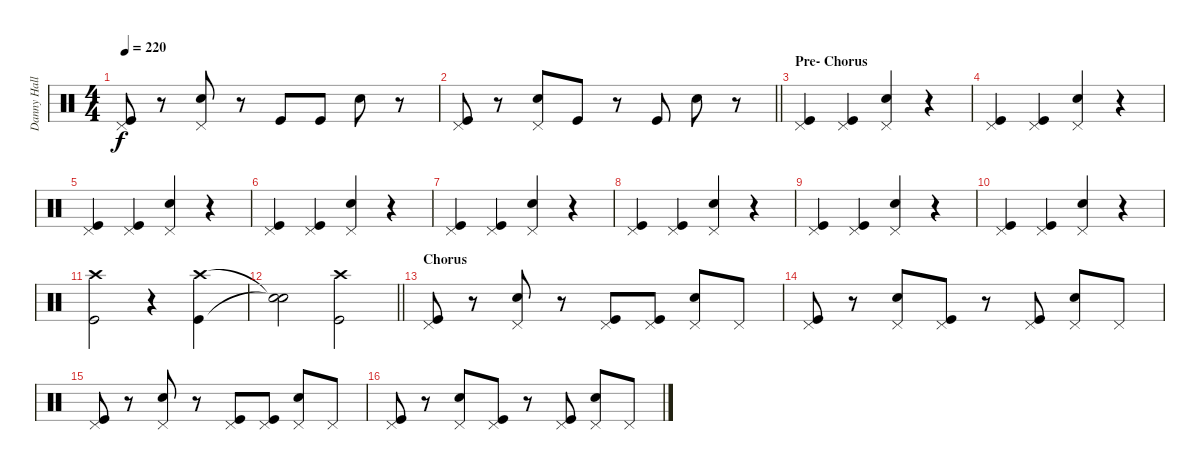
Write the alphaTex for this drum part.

\track ("Danny Hall" "Danny Hall") {instrument percussion}
\staff {score}
\articulation defaults
\ts (4 4)
\tempo 220
\clef neutral
\ks c
("Pedal Hi-Hat (hit)" "Kick (hit)").8{dy f} r.8 ("Pedal Hi-Hat (hit)" "Snare (hit) 2").8 r.8 "Kick (hit)".8 "Kick (hit)".8 "Snare (hit) 2".8 r.8 |
\barLineRight lightlight
("Pedal Hi-Hat (hit)" "Kick (hit)").8 r.8 ("Pedal Hi-Hat (hit)" "Snare (hit) 2").8 "Kick (hit)".8 r.8 "Kick (hit)".8 "Snare (hit) 2".8 r.8 |
\section ("" "Pre- Chorus")
("Pedal Hi-Hat (hit)" "Kick (hit)").4 ("Pedal Hi-Hat (hit)" "Kick (hit)").4 ("Pedal Hi-Hat (hit)" "Snare (hit) 2").4 r.4 |
("Pedal Hi-Hat (hit)" "Kick (hit)").4 ("Pedal Hi-Hat (hit)" "Kick (hit)").4 ("Pedal Hi-Hat (hit)" "Snare (hit) 2").4 r.4 |
("Pedal Hi-Hat (hit)" "Kick (hit)").4 ("Pedal Hi-Hat (hit)" "Kick (hit)").4 ("Pedal Hi-Hat (hit)" "Snare (hit) 2").4 r.4 |
("Pedal Hi-Hat (hit)" "Kick (hit)").4 ("Pedal Hi-Hat (hit)" "Kick (hit)").4 ("Pedal Hi-Hat (hit)" "Snare (hit) 2").4 r.4 |
("Pedal Hi-Hat (hit)" "Kick (hit)").4 ("Pedal Hi-Hat (hit)" "Kick (hit)").4 ("Pedal Hi-Hat (hit)" "Snare (hit) 2").4 r.4 |
("Pedal Hi-Hat (hit)" "Kick (hit)").4 ("Pedal Hi-Hat (hit)" "Kick (hit)").4 ("Pedal Hi-Hat (hit)" "Snare (hit) 2").4 r.4 |
("Pedal Hi-Hat (hit)" "Kick (hit)").4 ("Pedal Hi-Hat (hit)" "Kick (hit)").4 ("Pedal Hi-Hat (hit)" "Snare (hit) 2").4 r.4 |
("Pedal Hi-Hat (hit)" "Kick (hit)").4 ("Pedal Hi-Hat (hit)" "Kick (hit)").4 ("Pedal Hi-Hat (hit)" "Snare (hit) 2").4 r.4 |
("Crash high (hit)" "Kick (hit)").2 r.4 ("Crash high (hit)" "Kick (hit)").4 |
\barLineRight lightlight
("Snare (hit)"{t} "Snare (hit)"{t}).2 ("Crash high (hit)" "Kick (hit)").2 |
\section ("" "Chorus")
("Pedal Hi-Hat (hit)" "Kick (hit)").8 r.8 ("Pedal Hi-Hat (hit)" "Snare (hit) 2").8 r.8 ("Pedal Hi-Hat (hit)" "Kick (hit)").8 ("Pedal Hi-Hat (hit)" "Kick (hit)").8 ("Pedal Hi-Hat (hit)" "Snare (hit) 2").8 "Pedal Hi-Hat (hit)".8 |
("Pedal Hi-Hat (hit)" "Kick (hit)").8 r.8 ("Pedal Hi-Hat (hit)" "Snare (hit) 2").8 ("Pedal Hi-Hat (hit)" "Kick (hit)").8 r.8 ("Pedal Hi-Hat (hit)" "Kick (hit)").8 ("Pedal Hi-Hat (hit)" "Snare (hit) 2").8 "Pedal Hi-Hat (hit)".8 |
("Pedal Hi-Hat (hit)" "Kick (hit)").8 r.8 ("Pedal Hi-Hat (hit)" "Snare (hit) 2").8 r.8 ("Pedal Hi-Hat (hit)" "Kick (hit)").8 ("Pedal Hi-Hat (hit)" "Kick (hit)").8 ("Pedal Hi-Hat (hit)" "Snare (hit) 2").8 "Pedal Hi-Hat (hit)".8 |
("Pedal Hi-Hat (hit)" "Kick (hit)").8 r.8 ("Pedal Hi-Hat (hit)" "Snare (hit) 2").8 ("Pedal Hi-Hat (hit)" "Kick (hit)").8 r.8 ("Pedal Hi-Hat (hit)" "Kick (hit)").8 ("Pedal Hi-Hat (hit)" "Snare (hit) 2").8 "Pedal Hi-Hat (hit)".8
